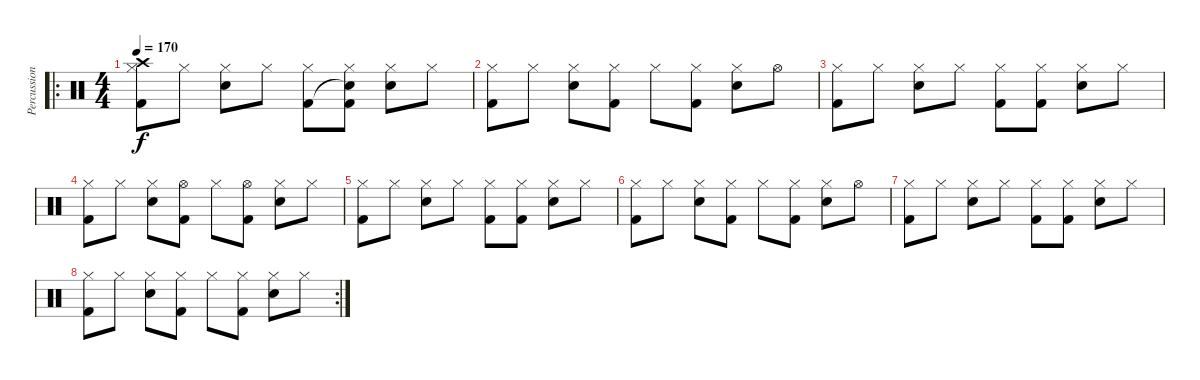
\track ("Percussion" "Percussion") {instrument percussion}
\staff {score}
\articulation defaults
\ro
\ts (4 4)
\tempo 170
\clef neutral
\ks c
("Hi-Hat (closed)" "Crash high (hit)" "Kick (hit) 2").8{dy f} "Hi-Hat (closed)".8 ("Hi-Hat (closed)" "Electric Snare (hit)").8 "Hi-Hat (closed)".8 ("Hi-Hat (closed)" "Kick (hit) 2").8 ("Hi-Hat (closed)" "Snare (hit)"{t} "Kick (hit) 2").8 ("Hi-Hat (closed)" "Electric Snare (hit)").8 "Hi-Hat (closed)".8 |
("Hi-Hat (closed)" "Kick (hit) 2").8 "Hi-Hat (closed)".8 ("Hi-Hat (closed)" "Electric Snare (hit)").8 ("Hi-Hat (closed)" "Kick (hit) 2").8 "Hi-Hat (closed)".8 ("Hi-Hat (closed)" "Kick (hit) 2").8 ("Hi-Hat (closed)" "Electric Snare (hit)").8 "Hi-Hat (open)".8 |
("Hi-Hat (closed)" "Kick (hit) 2").8 "Hi-Hat (closed)".8 ("Hi-Hat (closed)" "Electric Snare (hit)").8 "Hi-Hat (closed)".8 ("Hi-Hat (closed)" "Kick (hit) 2").8 ("Hi-Hat (closed)" "Kick (hit) 2").8 ("Hi-Hat (closed)" "Electric Snare (hit)").8 "Hi-Hat (closed)".8 |
("Hi-Hat (closed)" "Kick (hit) 2").8 "Hi-Hat (closed)".8 ("Hi-Hat (closed)" "Electric Snare (hit)").8 ("Hi-Hat (open)" "Kick (hit) 2").8 "Hi-Hat (closed)".8 ("Hi-Hat (open)" "Kick (hit) 2").8 ("Hi-Hat (closed)" "Electric Snare (hit)").8 "Hi-Hat (closed)".8 |
("Hi-Hat (closed)" "Kick (hit) 2").8 "Hi-Hat (closed)".8 ("Hi-Hat (closed)" "Electric Snare (hit)").8 "Hi-Hat (closed)".8 ("Hi-Hat (closed)" "Kick (hit) 2").8 ("Hi-Hat (closed)" "Kick (hit) 2").8 ("Hi-Hat (closed)" "Electric Snare (hit)").8 "Hi-Hat (closed)".8 |
("Hi-Hat (closed)" "Kick (hit) 2").8 "Hi-Hat (closed)".8 ("Hi-Hat (closed)" "Electric Snare (hit)").8 ("Hi-Hat (closed)" "Kick (hit) 2").8 "Hi-Hat (closed)".8 ("Hi-Hat (closed)" "Kick (hit) 2").8 ("Hi-Hat (closed)" "Electric Snare (hit)").8 "Hi-Hat (open)".8 |
("Hi-Hat (closed)" "Kick (hit) 2").8 "Hi-Hat (closed)".8 ("Hi-Hat (closed)" "Electric Snare (hit)").8 "Hi-Hat (closed)".8 ("Hi-Hat (closed)" "Kick (hit) 2").8 ("Hi-Hat (closed)" "Kick (hit) 2").8 ("Hi-Hat (closed)" "Electric Snare (hit)").8 "Hi-Hat (closed)".8 |
\rc 2
("Hi-Hat (closed)" "Kick (hit) 2").8 "Hi-Hat (closed)".8 ("Hi-Hat (closed)" "Electric Snare (hit)").8 ("Hi-Hat (closed)" "Kick (hit) 2").8 "Hi-Hat (closed)".8 ("Hi-Hat (closed)" "Kick (hit) 2").8 ("Hi-Hat (closed)" "Electric Snare (hit)").8 "Hi-Hat (closed)".8
